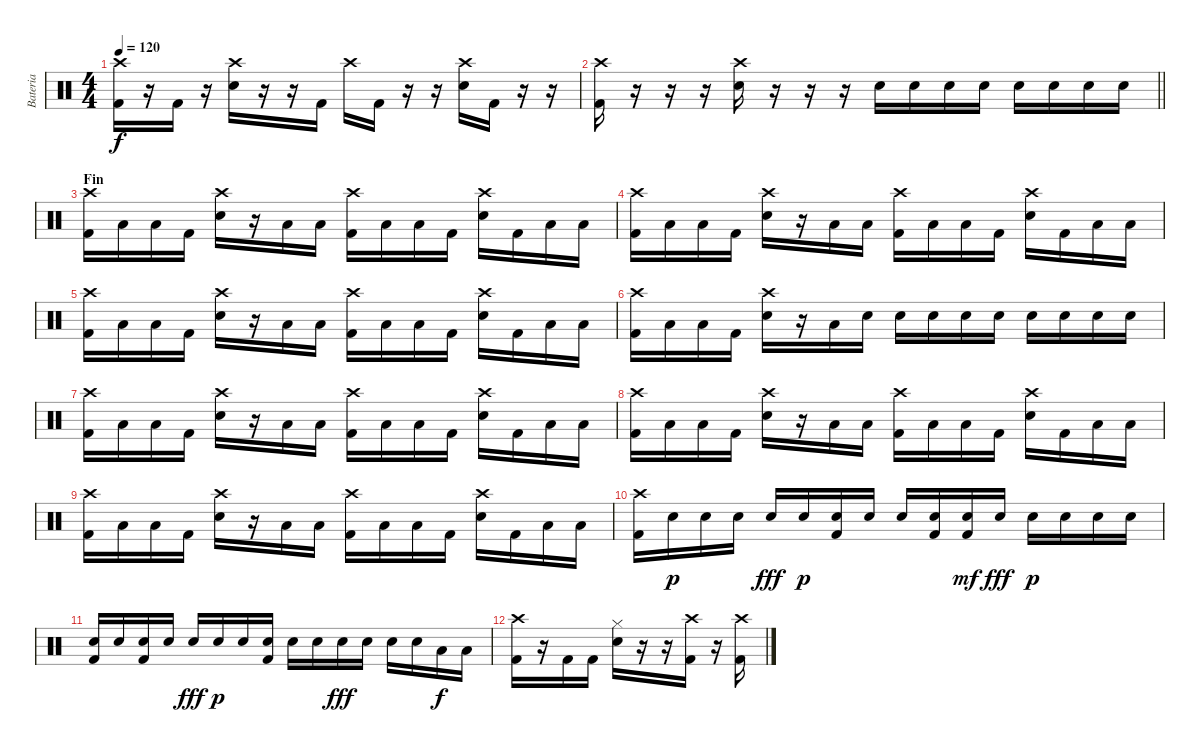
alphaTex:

\track ("Bateria" "Bateria") {instrument percussion}
\staff {score}
\articulation defaults
\ts (4 4)
\tempo 120
\clef neutral
\ks c
("Crash high (hit)" "Kick (hit) 2").16{dy f} r.16 "Kick (hit) 2".16 r.16 ("Crash high (hit)" "Snare (hit) 2").16 r.16 r.16 "Kick (hit) 2".16 "Crash high (hit)".16 "Kick (hit) 2".16 r.16 r.16 ("Crash high (hit)" "Snare (hit) 2").16 "Kick (hit) 2".16 r.16 r.16 |
\barLineRight lightlight
("Crash high (hit)" "Kick (hit) 2").16 r.16 r.16 r.16 ("Crash high (hit)" "Snare (hit) 2").16 r.16 r.16 r.16 "Snare (hit) 2".16 "Snare (hit) 2".16 "Snare (hit) 2".16 "Snare (hit) 2".16 "Snare (hit) 2".16 "Snare (hit) 2".16 "Snare (hit) 2".16 "Snare (hit) 2".16 |
\section ("" "Fin")
("Crash high (hit)" "Kick (hit) 2").16 "Low Floor Tom (hit)".16 "Low Floor Tom (hit)".16 "Kick (hit) 2".16 ("Crash high (hit)" "Snare (hit) 2").16 r.16 "Low Floor Tom (hit)".16 "Low Floor Tom (hit)".16 ("Crash high (hit)" "Kick (hit) 2").16 "Low Floor Tom (hit)".16 "Low Floor Tom (hit)".16 "Kick (hit) 2".16 ("Crash high (hit)" "Snare (hit) 2").16 "Kick (hit) 2".16 "Low Floor Tom (hit)".16 "Low Floor Tom (hit)".16 |
("Crash high (hit)" "Kick (hit) 2").16 "Low Floor Tom (hit)".16 "Low Floor Tom (hit)".16 "Kick (hit) 2".16 ("Crash high (hit)" "Snare (hit) 2").16 r.16 "Low Floor Tom (hit)".16 "Low Floor Tom (hit)".16 ("Crash high (hit)" "Kick (hit) 2").16 "Low Floor Tom (hit)".16 "Low Floor Tom (hit)".16 "Kick (hit) 2".16 ("Crash high (hit)" "Snare (hit) 2").16 "Kick (hit) 2".16 "Low Floor Tom (hit)".16 "Low Floor Tom (hit)".16 |
("Crash high (hit)" "Kick (hit) 2").16 "Low Floor Tom (hit)".16 "Low Floor Tom (hit)".16 "Kick (hit) 2".16 ("Crash high (hit)" "Snare (hit) 2").16 r.16 "Low Floor Tom (hit)".16 "Low Floor Tom (hit)".16 ("Crash high (hit)" "Kick (hit) 2").16 "Low Floor Tom (hit)".16 "Low Floor Tom (hit)".16 "Kick (hit) 2".16 ("Crash high (hit)" "Snare (hit) 2").16 "Kick (hit) 2".16 "Low Floor Tom (hit)".16 "Low Floor Tom (hit)".16 |
("Crash high (hit)" "Kick (hit) 2").16 "Low Floor Tom (hit)".16 "Low Floor Tom (hit)".16 "Kick (hit) 2".16 ("Crash high (hit)" "Snare (hit) 2").16 r.16 "Low Floor Tom (hit)".16 "Snare (hit) 2".16 "Snare (hit) 2".16 "Snare (hit) 2".16 "Snare (hit) 2".16 "Snare (hit) 2".16 "Snare (hit) 2".16 "Snare (hit) 2".16 "Snare (hit) 2".16 "Snare (hit) 2".16 |
("Crash high (hit)" "Kick (hit) 2").16 "Low Floor Tom (hit)".16 "Low Floor Tom (hit)".16 "Kick (hit) 2".16 ("Crash high (hit)" "Snare (hit) 2").16 r.16 "Low Floor Tom (hit)".16 "Low Floor Tom (hit)".16 ("Crash high (hit)" "Kick (hit) 2").16 "Low Floor Tom (hit)".16 "Low Floor Tom (hit)".16 "Kick (hit) 2".16 ("Crash high (hit)" "Snare (hit) 2").16 "Kick (hit) 2".16 "Low Floor Tom (hit)".16 "Low Floor Tom (hit)".16 |
("Crash high (hit)" "Kick (hit) 2").16 "Low Floor Tom (hit)".16 "Low Floor Tom (hit)".16 "Kick (hit) 2".16 ("Crash high (hit)" "Snare (hit) 2").16 r.16 "Low Floor Tom (hit)".16 "Low Floor Tom (hit)".16 ("Crash high (hit)" "Kick (hit) 2").16 "Low Floor Tom (hit)".16 "Low Floor Tom (hit)".16 "Kick (hit) 2".16 ("Crash high (hit)" "Snare (hit) 2").16 "Kick (hit) 2".16 "Low Floor Tom (hit)".16 "Low Floor Tom (hit)".16 |
("Crash high (hit)" "Kick (hit) 2").16 "Low Floor Tom (hit)".16 "Low Floor Tom (hit)".16 "Kick (hit) 2".16 ("Crash high (hit)" "Snare (hit) 2").16 r.16 "Low Floor Tom (hit)".16 "Low Floor Tom (hit)".16 ("Crash high (hit)" "Kick (hit) 2").16 "Low Floor Tom (hit)".16 "Low Floor Tom (hit)".16 "Kick (hit) 2".16 ("Crash high (hit)" "Snare (hit) 2").16 "Kick (hit) 2".16 "Low Floor Tom (hit)".16 "Low Floor Tom (hit)".16 |
("Kick (hit) 2" "Crash high (hit)").16 "Snare (hit) 2".16{dy p} "Snare (hit) 2".16 "Snare (hit) 2".16 "Snare (hit) 2".16{dy fff} "Snare (hit) 2".16{dy p} ("Snare (hit) 2" "Kick (hit) 2").16 "Snare (hit) 2".16 "Snare (hit) 2".16 ("Snare (hit) 2" "Kick (hit) 2").16 ("Snare (hit) 2" "Kick (hit) 2").16{dy mf} "Snare (hit) 2".16{dy fff} "Snare (hit) 2".16{dy p} "Snare (hit) 2".16 "Snare (hit) 2".16 "Snare (hit) 2".16 |
("Snare (hit) 2" "Kick (hit) 2").16 "Snare (hit) 2".16 ("Snare (hit) 2" "Kick (hit) 2").16 "Snare (hit) 2".16 "Snare (hit) 2".16{dy fff} "Snare (hit) 2".16{dy p} "Snare (hit) 2".16 ("Snare (hit) 2" "Kick (hit) 2").16 "Snare (hit) 2".16 "Snare (hit) 2".16 "Snare (hit) 2".16{dy fff} "Snare (hit) 2".16 "Snare (hit) 2".16 "Snare (hit) 2".16 "Low Floor Tom (hit)".16{dy f} "Low Floor Tom (hit)".16 |
("Crash high (hit)" "Kick (hit) 2").16 r.16 "Kick (hit) 2".16 "Kick (hit) 2".16 ("Hi-Hat (closed)" "Snare (hit) 2").16 r.16 r.16 ("Crash high (hit)" "Kick (hit) 2").16 r.16 ("Crash high (hit)" "Kick (hit) 2").16
